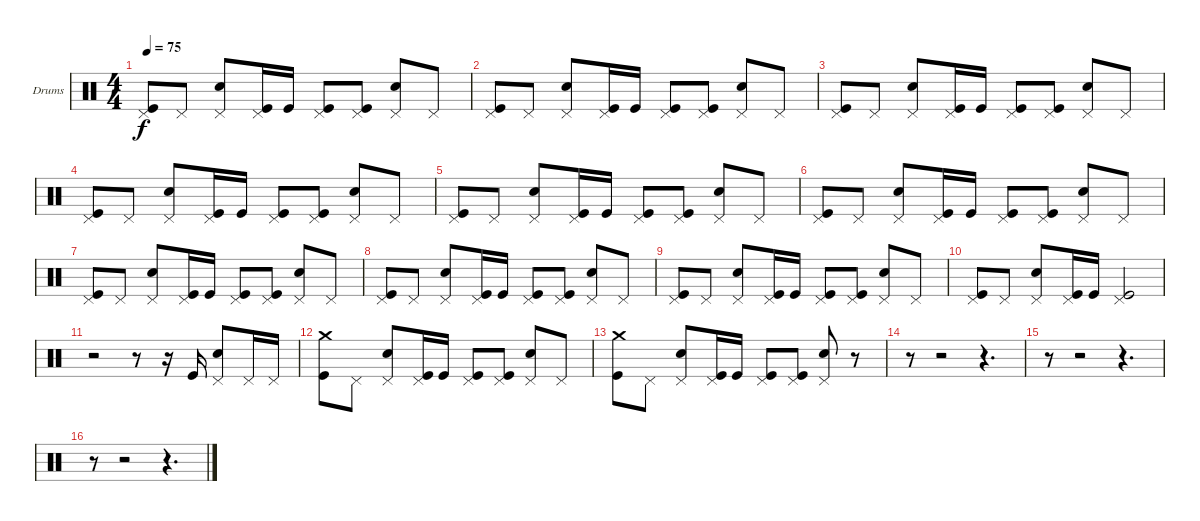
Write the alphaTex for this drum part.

\bracketExtendMode groupsimilarinstruments
\firstSystemTrackNameOrientation horizontal
\otherSystemsTrackNameOrientation horizontal
\track ("Drumkit" "Drums") {instrument percussion}
\staff {score}
\articulation defaults
\ts (4 4)
\tempo 75
\clef neutral
\ks c
("Pedal Hi-Hat (hit)" "Kick (hit)").8{dy f} "Pedal Hi-Hat (hit)".8 ("Pedal Hi-Hat (hit)" "Snare (hit) 2").8 ("Pedal Hi-Hat (hit)" "Kick (hit)").16 "Kick (hit)".16 ("Pedal Hi-Hat (hit)" "Kick (hit)").8 ("Pedal Hi-Hat (hit)" "Kick (hit)").8 ("Pedal Hi-Hat (hit)" "Snare (hit) 2").8 "Pedal Hi-Hat (hit)".8 |
("Pedal Hi-Hat (hit)" "Kick (hit)").8 "Pedal Hi-Hat (hit)".8 ("Pedal Hi-Hat (hit)" "Snare (hit) 2").8 ("Pedal Hi-Hat (hit)" "Kick (hit)").16 "Kick (hit)".16 ("Pedal Hi-Hat (hit)" "Kick (hit)").8 ("Pedal Hi-Hat (hit)" "Kick (hit)").8 ("Pedal Hi-Hat (hit)" "Snare (hit) 2").8 "Pedal Hi-Hat (hit)".8 |
("Pedal Hi-Hat (hit)" "Kick (hit)").8 "Pedal Hi-Hat (hit)".8 ("Pedal Hi-Hat (hit)" "Snare (hit) 2").8 ("Pedal Hi-Hat (hit)" "Kick (hit)").16 "Kick (hit)".16 ("Pedal Hi-Hat (hit)" "Kick (hit)").8 ("Pedal Hi-Hat (hit)" "Kick (hit)").8 ("Pedal Hi-Hat (hit)" "Snare (hit) 2").8 "Pedal Hi-Hat (hit)".8 |
("Pedal Hi-Hat (hit)" "Kick (hit)").8 "Pedal Hi-Hat (hit)".8 ("Pedal Hi-Hat (hit)" "Snare (hit) 2").8 ("Pedal Hi-Hat (hit)" "Kick (hit)").16 "Kick (hit)".16 ("Pedal Hi-Hat (hit)" "Kick (hit)").8 ("Pedal Hi-Hat (hit)" "Kick (hit)").8 ("Pedal Hi-Hat (hit)" "Snare (hit) 2").8 "Pedal Hi-Hat (hit)".8 |
("Pedal Hi-Hat (hit)" "Kick (hit)").8 "Pedal Hi-Hat (hit)".8 ("Pedal Hi-Hat (hit)" "Snare (hit) 2").8 ("Pedal Hi-Hat (hit)" "Kick (hit)").16 "Kick (hit)".16 ("Pedal Hi-Hat (hit)" "Kick (hit)").8 ("Pedal Hi-Hat (hit)" "Kick (hit)").8 ("Pedal Hi-Hat (hit)" "Snare (hit) 2").8 "Pedal Hi-Hat (hit)".8 |
("Pedal Hi-Hat (hit)" "Kick (hit)").8 "Pedal Hi-Hat (hit)".8 ("Pedal Hi-Hat (hit)" "Snare (hit) 2").8 ("Pedal Hi-Hat (hit)" "Kick (hit)").16 "Kick (hit)".16 ("Pedal Hi-Hat (hit)" "Kick (hit)").8 ("Pedal Hi-Hat (hit)" "Kick (hit)").8 ("Pedal Hi-Hat (hit)" "Snare (hit) 2").8 "Pedal Hi-Hat (hit)".8 |
("Pedal Hi-Hat (hit)" "Kick (hit)").8 "Pedal Hi-Hat (hit)".8 ("Pedal Hi-Hat (hit)" "Snare (hit) 2").8 ("Pedal Hi-Hat (hit)" "Kick (hit)").16 "Kick (hit)".16 ("Pedal Hi-Hat (hit)" "Kick (hit)").8 ("Pedal Hi-Hat (hit)" "Kick (hit)").8 ("Pedal Hi-Hat (hit)" "Snare (hit) 2").8 "Pedal Hi-Hat (hit)".8 |
("Pedal Hi-Hat (hit)" "Kick (hit)").8 "Pedal Hi-Hat (hit)".8 ("Pedal Hi-Hat (hit)" "Snare (hit) 2").8 ("Pedal Hi-Hat (hit)" "Kick (hit)").16 "Kick (hit)".16 ("Pedal Hi-Hat (hit)" "Kick (hit)").8 ("Pedal Hi-Hat (hit)" "Kick (hit)").8 ("Pedal Hi-Hat (hit)" "Snare (hit) 2").8 "Pedal Hi-Hat (hit)".8 |
("Pedal Hi-Hat (hit)" "Kick (hit)").8 "Pedal Hi-Hat (hit)".8 ("Pedal Hi-Hat (hit)" "Snare (hit) 2").8 ("Pedal Hi-Hat (hit)" "Kick (hit)").16 "Kick (hit)".16 ("Pedal Hi-Hat (hit)" "Kick (hit)").8 ("Pedal Hi-Hat (hit)" "Kick (hit)").8 ("Pedal Hi-Hat (hit)" "Snare (hit) 2").8 "Pedal Hi-Hat (hit)".8 |
("Pedal Hi-Hat (hit)" "Kick (hit)").8 "Pedal Hi-Hat (hit)".8 ("Pedal Hi-Hat (hit)" "Snare (hit) 2").8 ("Pedal Hi-Hat (hit)" "Kick (hit)").16 "Kick (hit)".16 ("Pedal Hi-Hat (hit)" "Kick (hit)").2 |
r.2 r.8 r.16 "Kick (hit)".16 ("Pedal Hi-Hat (hit)" "Snare (hit) 2").8 "Pedal Hi-Hat (hit)".16 "Pedal Hi-Hat (hit)".16 |
("Crash medium (hit)" "Kick (hit)").8 "Pedal Hi-Hat (hit)".8 ("Pedal Hi-Hat (hit)" "Snare (hit) 2").8 ("Pedal Hi-Hat (hit)" "Kick (hit)").16 "Kick (hit)".16 ("Pedal Hi-Hat (hit)" "Kick (hit)").8 ("Pedal Hi-Hat (hit)" "Kick (hit)").8 ("Pedal Hi-Hat (hit)" "Snare (hit) 2").8 "Pedal Hi-Hat (hit)".8 |
("Crash medium (hit)" "Kick (hit)").8 "Pedal Hi-Hat (hit)".8 ("Pedal Hi-Hat (hit)" "Snare (hit) 2").8 ("Pedal Hi-Hat (hit)" "Kick (hit)").16 "Kick (hit)".16 ("Pedal Hi-Hat (hit)" "Kick (hit)").8 ("Pedal Hi-Hat (hit)" "Kick (hit)").8 ("Pedal Hi-Hat (hit)" "Snare (hit) 2").8 r.8 |
r.8 r.2 r.4{d} |
r.8 r.2 r.4{d} |
r.8 r.2 r.4{d}
